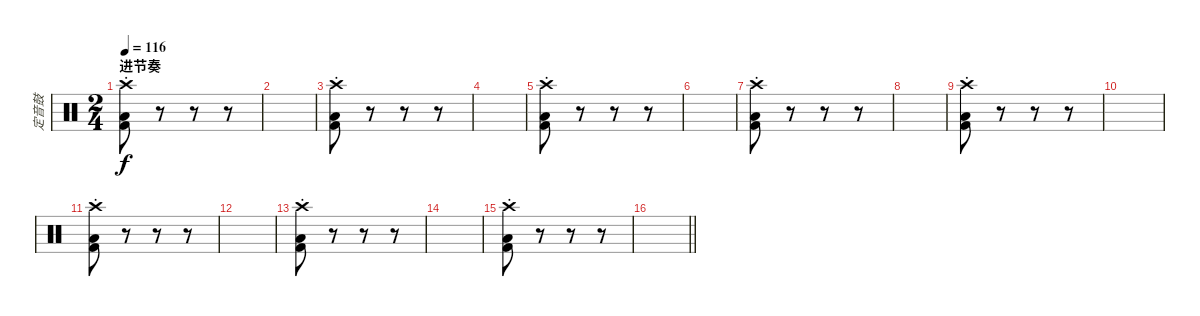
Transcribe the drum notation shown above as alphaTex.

\track ("定音鼓" "定音鼓") {instrument percussion}
\staff {score}
\articulation defaults
\ts (2 4)
\section ("" "进节奏")
\tempo 116
\clef neutral
\ks c
("Crash high (hit)"{st} "Low Floor Tom (hit)"{st} "Kick (hit) 2"{st}).8{dy f} r.8 r.8 r.8 |
|
("Crash high (hit)"{st} "Low Floor Tom (hit)"{st} "Kick (hit) 2"{st}).8 r.8 r.8 r.8 |
|
("Crash high (hit)"{st} "Low Floor Tom (hit)"{st} "Kick (hit) 2"{st}).8 r.8 r.8 r.8 |
|
("Crash high (hit)"{st} "Low Floor Tom (hit)"{st} "Kick (hit) 2"{st}).8 r.8 r.8 r.8 |
|
("Crash high (hit)"{st} "Low Floor Tom (hit)"{st} "Kick (hit) 2"{st}).8 r.8 r.8 r.8 |
|
("Crash high (hit)"{st} "Low Floor Tom (hit)"{st} "Kick (hit) 2"{st}).8 r.8 r.8 r.8 |
|
("Crash high (hit)"{st} "Low Floor Tom (hit)"{st} "Kick (hit) 2"{st}).8 r.8 r.8 r.8 |
|
("Crash high (hit)"{st} "Low Floor Tom (hit)"{st} "Kick (hit) 2"{st}).8 r.8 r.8 r.8 |
\barLineRight lightlight
